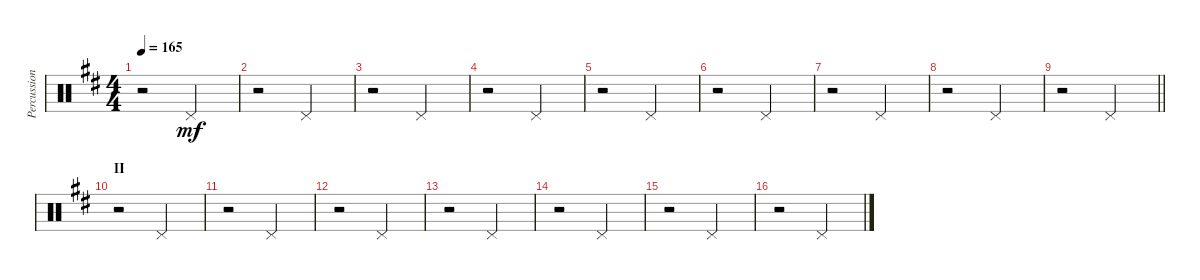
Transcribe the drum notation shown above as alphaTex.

\track ("Percussion [Nick Mason]" "Percussion") {instrument percussion}
\staff {score}
\articulation defaults
\ts (4 4)
\tempo 165
\clef neutral
\ks d
r.2{dy mf} "Pedal Hi-Hat (hit)".2 |
r.2 "Pedal Hi-Hat (hit)".2 |
r.2 "Pedal Hi-Hat (hit)".2 |
r.2 "Pedal Hi-Hat (hit)".2 |
r.2 "Pedal Hi-Hat (hit)".2 |
r.2 "Pedal Hi-Hat (hit)".2 |
r.2 "Pedal Hi-Hat (hit)".2 |
r.2 "Pedal Hi-Hat (hit)".2 |
\barLineRight lightlight
r.2 "Pedal Hi-Hat (hit)".2 |
\section ("" "II")
r.2 "Pedal Hi-Hat (hit)".2 |
r.2 "Pedal Hi-Hat (hit)".2 |
r.2 "Pedal Hi-Hat (hit)".2 |
r.2 "Pedal Hi-Hat (hit)".2 |
r.2 "Pedal Hi-Hat (hit)".2 |
r.2 "Pedal Hi-Hat (hit)".2 |
r.2 "Pedal Hi-Hat (hit)".2
